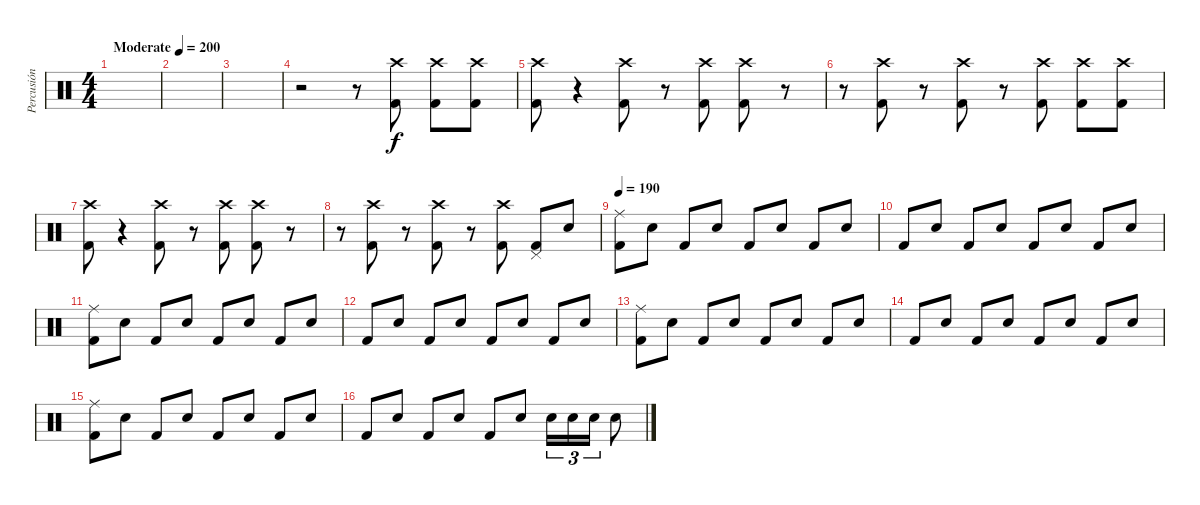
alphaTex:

\track ("Percusión" "Percusión") {instrument percussion}
\staff {score}
\articulation defaults
\ts (4 4)
\tempo (200 "Moderate")
\clef neutral
\ks c
|
|
|
r.2 r.8 ("Kick (hit) 2" "Crash high (hit)").8 ("Kick (hit) 2" "Crash high (hit)").8 ("Kick (hit) 2" "Crash high (hit)").8 |
("Kick (hit) 2" "Crash high (hit)").8 r.4 ("Kick (hit) 2" "Crash high (hit)").8 r.8 ("Kick (hit) 2" "Crash high (hit)").8 ("Kick (hit) 2" "Crash high (hit)").8 r.8 |
r.8 ("Kick (hit) 2" "Crash high (hit)").8 r.8 ("Kick (hit) 2" "Crash high (hit)").8 r.8 ("Kick (hit) 2" "Crash high (hit)").8 ("Kick (hit) 2" "Crash high (hit)").8 ("Kick (hit) 2" "Crash high (hit)").8 |
("Kick (hit) 2" "Crash high (hit)").8 r.4 ("Kick (hit) 2" "Crash high (hit)").8 r.8 ("Kick (hit) 2" "Crash high (hit)").8 ("Kick (hit) 2" "Crash high (hit)").8 r.8 |
r.8 ("Kick (hit) 2" "Crash high (hit)").8 r.8 ("Kick (hit) 2" "Crash high (hit)").8 r.8 ("Kick (hit) 2" "Crash high (hit)").8 ("Kick (hit) 2" "Pedal Hi-Hat (hit)").8 "Snare (hit) 2".8 |
\tempo 190
("Kick (hit) 2" "Ride (middle)").8 "Snare (hit) 2".8 "Kick (hit) 2".8 "Snare (hit) 2".8 "Kick (hit) 2".8 "Snare (hit) 2".8 "Kick (hit) 2".8 "Snare (hit) 2".8 |
"Kick (hit) 2".8 "Snare (hit) 2".8 "Kick (hit) 2".8 "Snare (hit) 2".8 "Kick (hit) 2".8 "Snare (hit) 2".8 "Kick (hit) 2".8 "Snare (hit) 2".8 |
("Kick (hit) 2" "Ride (middle)").8 "Snare (hit) 2".8 "Kick (hit) 2".8 "Snare (hit) 2".8 "Kick (hit) 2".8 "Snare (hit) 2".8 "Kick (hit) 2".8 "Snare (hit) 2".8 |
"Kick (hit) 2".8 "Snare (hit) 2".8 "Kick (hit) 2".8 "Snare (hit) 2".8 "Kick (hit) 2".8 "Snare (hit) 2".8 "Kick (hit) 2".8 "Snare (hit) 2".8 |
("Kick (hit) 2" "Ride (middle)").8 "Snare (hit) 2".8 "Kick (hit) 2".8 "Snare (hit) 2".8 "Kick (hit) 2".8 "Snare (hit) 2".8 "Kick (hit) 2".8 "Snare (hit) 2".8 |
"Kick (hit) 2".8 "Snare (hit) 2".8 "Kick (hit) 2".8 "Snare (hit) 2".8 "Kick (hit) 2".8 "Snare (hit) 2".8 "Kick (hit) 2".8 "Snare (hit) 2".8 |
("Kick (hit) 2" "Ride (middle)").8 "Snare (hit) 2".8 "Kick (hit) 2".8 "Snare (hit) 2".8 "Kick (hit) 2".8 "Snare (hit) 2".8 "Kick (hit) 2".8 "Snare (hit) 2".8 |
"Kick (hit) 2".8 "Snare (hit) 2".8 "Kick (hit) 2".8 "Snare (hit) 2".8 "Kick (hit) 2".8 "Snare (hit) 2".8 "Snare (hit) 2".16{tu (3 2)} "Snare (hit) 2".16{tu (3 2)} "Snare (hit) 2".16{tu (3 2)} "Snare (hit) 2".8
